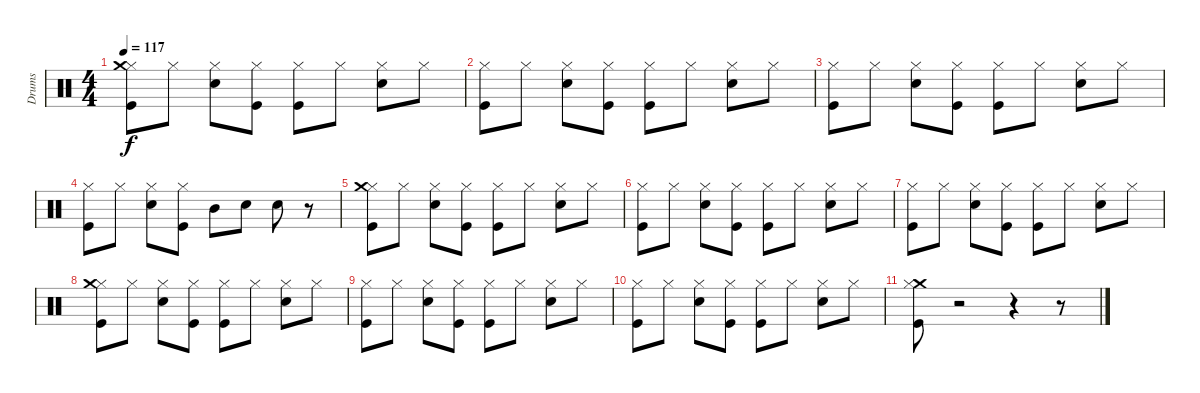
\track ("Drums" "Drums") {instrument percussion}
\staff {score}
\articulation defaults
\ts (4 4)
\tempo 117
\clef neutral
\ks c
("Kick (hit)" "Hi-Hat (closed)" "Crash medium (hit)").8{dy f} "Hi-Hat (closed)".8 ("Snare (hit) 2" "Hi-Hat (closed)").8 ("Kick (hit)" "Hi-Hat (closed)").8 ("Hi-Hat (closed)" "Kick (hit)").8 "Hi-Hat (closed)".8 ("Snare (hit) 2" "Hi-Hat (closed)").8 "Hi-Hat (closed)".8 |
("Kick (hit)" "Hi-Hat (closed)").8 "Hi-Hat (closed)".8 ("Snare (hit) 2" "Hi-Hat (closed)").8 ("Kick (hit)" "Hi-Hat (closed)").8 ("Hi-Hat (closed)" "Kick (hit)").8 "Hi-Hat (closed)".8 ("Snare (hit) 2" "Hi-Hat (closed)").8 "Hi-Hat (closed)".8 |
("Kick (hit)" "Hi-Hat (closed)").8 "Hi-Hat (closed)".8 ("Snare (hit) 2" "Hi-Hat (closed)").8 ("Kick (hit)" "Hi-Hat (closed)").8 ("Hi-Hat (closed)" "Kick (hit)").8 "Hi-Hat (closed)".8 ("Snare (hit) 2" "Hi-Hat (closed)").8 "Hi-Hat (closed)".8 |
("Kick (hit)" "Hi-Hat (closed)").8 "Hi-Hat (closed)".8 ("Snare (hit) 2" "Hi-Hat (closed)").8 ("Kick (hit)" "Hi-Hat (closed)").8 "Mid Tom (hit)".8 "Snare (hit) 2".8 "Snare (hit) 2".8 r.8 |
("Kick (hit)" "Hi-Hat (closed)" "Crash medium (hit)").8 "Hi-Hat (closed)".8 ("Snare (hit) 2" "Hi-Hat (closed)").8 ("Kick (hit)" "Hi-Hat (closed)").8 ("Hi-Hat (closed)" "Kick (hit)").8 "Hi-Hat (closed)".8 ("Snare (hit) 2" "Hi-Hat (closed)").8 "Hi-Hat (closed)".8 |
("Kick (hit)" "Hi-Hat (closed)").8 "Hi-Hat (closed)".8 ("Snare (hit) 2" "Hi-Hat (closed)").8 ("Kick (hit)" "Hi-Hat (closed)").8 ("Hi-Hat (closed)" "Kick (hit)").8 "Hi-Hat (closed)".8 ("Snare (hit) 2" "Hi-Hat (closed)").8 "Hi-Hat (closed)".8 |
("Kick (hit)" "Hi-Hat (closed)").8 "Hi-Hat (closed)".8 ("Snare (hit) 2" "Hi-Hat (closed)").8 ("Kick (hit)" "Hi-Hat (closed)").8 ("Hi-Hat (closed)" "Kick (hit)").8 "Hi-Hat (closed)".8 ("Snare (hit) 2" "Hi-Hat (closed)").8 "Hi-Hat (closed)".8 |
("Kick (hit)" "Hi-Hat (closed)" "Crash medium (hit)").8 "Hi-Hat (closed)".8 ("Snare (hit) 2" "Hi-Hat (closed)").8 ("Kick (hit)" "Hi-Hat (closed)").8 ("Hi-Hat (closed)" "Kick (hit)").8 "Hi-Hat (closed)".8 ("Snare (hit) 2" "Hi-Hat (closed)").8 "Hi-Hat (closed)".8 |
("Kick (hit)" "Hi-Hat (closed)").8 "Hi-Hat (closed)".8 ("Snare (hit) 2" "Hi-Hat (closed)").8 ("Kick (hit)" "Hi-Hat (closed)").8 ("Hi-Hat (closed)" "Kick (hit)").8 "Hi-Hat (closed)".8 ("Snare (hit) 2" "Hi-Hat (closed)").8 "Hi-Hat (closed)".8 |
("Kick (hit)" "Hi-Hat (closed)").8 "Hi-Hat (closed)".8 ("Snare (hit) 2" "Hi-Hat (closed)").8 ("Kick (hit)" "Hi-Hat (closed)").8 ("Hi-Hat (closed)" "Kick (hit)").8 "Hi-Hat (closed)".8 ("Snare (hit) 2" "Hi-Hat (closed)").8 "Hi-Hat (closed)".8 |
("Kick (hit)" "Crash medium (hit)" "Hi-Hat (closed)").8 r.2 r.4 r.8
